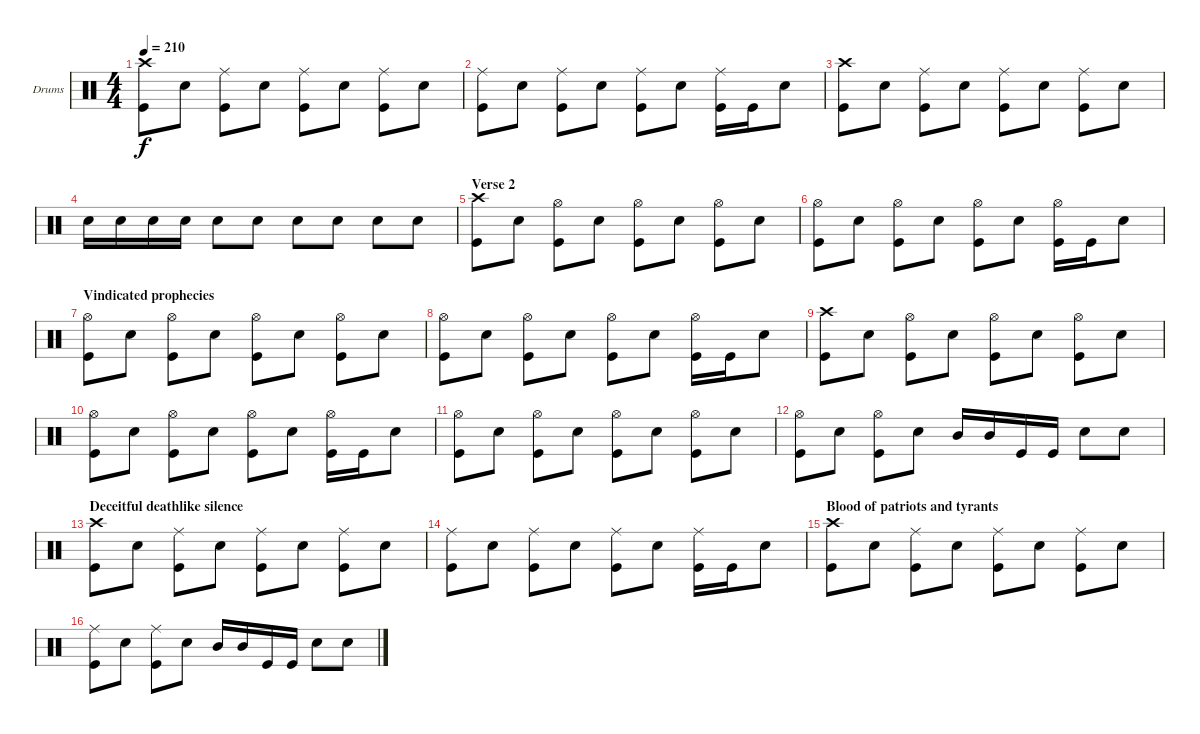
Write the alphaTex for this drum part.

\defaultSystemsLayout 4
\bracketExtendMode groupsimilarinstruments
\firstSystemTrackNameOrientation horizontal
\otherSystemsTrackNameOrientation horizontal
\track ("Markus Freiwald" "Drums") {instrument percussion}
\staff {score}
\articulation defaults
\ts (4 4)
\tempo 210
\clef neutral
\scale
0.5
\ks c
("Crash high (hit)" "Kick (hit)").8{dy f} "Snare (hit) 2".8 ("Ride (middle)" "Kick (hit)").8 "Snare (hit) 2".8 ("Ride (middle)" "Kick (hit)").8 "Snare (hit) 2".8 ("Ride (middle)" "Kick (hit)").8 "Snare (hit) 2".8 |
\scale
0.5 ("Ride (middle)" "Kick (hit)").8 "Snare (hit) 2".8 ("Ride (middle)" "Kick (hit)").8 "Snare (hit) 2".8 ("Ride (middle)" "Kick (hit)").8 "Snare (hit) 2".8 ("Ride (middle)" "Kick (hit)").16 "Kick (hit)".16 "Snare (hit) 2".8 |
\scale
0.5 ("Crash high (hit)" "Kick (hit)").8 "Snare (hit) 2".8 ("Ride (middle)" "Kick (hit)").8 "Snare (hit) 2".8 ("Ride (middle)" "Kick (hit)").8 "Snare (hit) 2".8 ("Ride (middle)" "Kick (hit)").8 "Snare (hit) 2".8 |
\scale
0.5 "Snare (hit) 2".16 "Snare (hit) 2".16 "Snare (hit) 2".16 "Snare (hit) 2".16 "Snare (hit) 2".8 "Snare (hit) 2".8 "Snare (hit) 2".8 "Snare (hit) 2".8 "Snare (hit) 2".8 "Snare (hit) 2".8 |
\section ("" "Verse 2")
\scale
0.5 ("Crash high (hit)" "Kick (hit)").8 "Snare (hit) 2".8 ("Hi-Hat (open)" "Kick (hit)").8 "Snare (hit) 2".8 ("Hi-Hat (open)" "Kick (hit)").8 "Snare (hit) 2".8 ("Hi-Hat (open)" "Kick (hit)").8 "Snare (hit) 2".8 |
\scale
0.5 ("Hi-Hat (open)" "Kick (hit)").8 "Snare (hit) 2".8 ("Hi-Hat (open)" "Kick (hit)").8 "Snare (hit) 2".8 ("Hi-Hat (open)" "Kick (hit)").8 "Snare (hit) 2".8 ("Hi-Hat (open)" "Kick (hit)").16 "Kick (hit)".16 "Snare (hit) 2".8 |
\section ("" "Vindicated prophecies")
\scale
0.5 ("Kick (hit)" "Hi-Hat (open)").8 "Snare (hit) 2".8 ("Hi-Hat (open)" "Kick (hit)").8 "Snare (hit) 2".8 ("Hi-Hat (open)" "Kick (hit)").8 "Snare (hit) 2".8 ("Hi-Hat (open)" "Kick (hit)").8 "Snare (hit) 2".8 |
\scale
0.5 ("Hi-Hat (open)" "Kick (hit)").8 "Snare (hit) 2".8 ("Hi-Hat (open)" "Kick (hit)").8 "Snare (hit) 2".8 ("Hi-Hat (open)" "Kick (hit)").8 "Snare (hit) 2".8 ("Hi-Hat (open)" "Kick (hit)").16 "Kick (hit)".16 "Snare (hit) 2".8 |
\scale
0.5 ("Crash high (hit)" "Kick (hit)").8 "Snare (hit) 2".8 ("Hi-Hat (open)" "Kick (hit)").8 "Snare (hit) 2".8 ("Hi-Hat (open)" "Kick (hit)").8 "Snare (hit) 2".8 ("Hi-Hat (open)" "Kick (hit)").8 "Snare (hit) 2".8 |
\scale
0.5 ("Hi-Hat (open)" "Kick (hit)").8 "Snare (hit) 2".8 ("Hi-Hat (open)" "Kick (hit)").8 "Snare (hit) 2".8 ("Hi-Hat (open)" "Kick (hit)").8 "Snare (hit) 2".8 ("Hi-Hat (open)" "Kick (hit)").16 "Kick (hit)".16 "Snare (hit) 2".8 |
\scale
0.5 ("Kick (hit)" "Hi-Hat (open)").8 "Snare (hit) 2".8 ("Hi-Hat (open)" "Kick (hit)").8 "Snare (hit) 2".8 ("Hi-Hat (open)" "Kick (hit)").8 "Snare (hit) 2".8 ("Hi-Hat (open)" "Kick (hit)").8 "Snare (hit) 2".8 |
\scale
0.5 ("Hi-Hat (open)" "Kick (hit)").8 "Snare (hit) 2".8 ("Hi-Hat (open)" "Kick (hit)").8 "Snare (hit) 2".8 "Mid Tom (hit)".16 "Mid Tom (hit)".16 "Kick (hit)".16 "Kick (hit)".16 "Snare (hit) 2".8 "Snare (hit) 2".8 |
\section ("" "Deceitful deathlike silence")
\scale
0.5 ("Crash high (hit)" "Kick (hit)").8 "Snare (hit) 2".8 ("Ride (middle)" "Kick (hit)").8 "Snare (hit) 2".8 ("Ride (middle)" "Kick (hit)").8 "Snare (hit) 2".8 ("Ride (middle)" "Kick (hit)").8 "Snare (hit) 2".8 |
\scale
0.5 ("Ride (middle)" "Kick (hit)").8 "Snare (hit) 2".8 ("Ride (middle)" "Kick (hit)").8 "Snare (hit) 2".8 ("Ride (middle)" "Kick (hit)").8 "Snare (hit) 2".8 ("Ride (middle)" "Kick (hit)").16 "Kick (hit)".16 "Snare (hit) 2".8 |
\section ("" "Blood of patriots and tyrants")
\scale
0.5 ("Crash high (hit)" "Kick (hit)").8 "Snare (hit) 2".8 ("Ride (middle)" "Kick (hit)").8 "Snare (hit) 2".8 ("Ride (middle)" "Kick (hit)").8 "Snare (hit) 2".8 ("Ride (middle)" "Kick (hit)").8 "Snare (hit) 2".8 |
\scale
0.5 ("Ride (middle)" "Kick (hit)").8 "Snare (hit) 2".8 ("Ride (middle)" "Kick (hit)").8 "Snare (hit) 2".8 "Mid Tom (hit)".16 "Mid Tom (hit)".16 "Kick (hit)".16 "Kick (hit)".16 "Snare (hit) 2".8 "Snare (hit) 2".8
